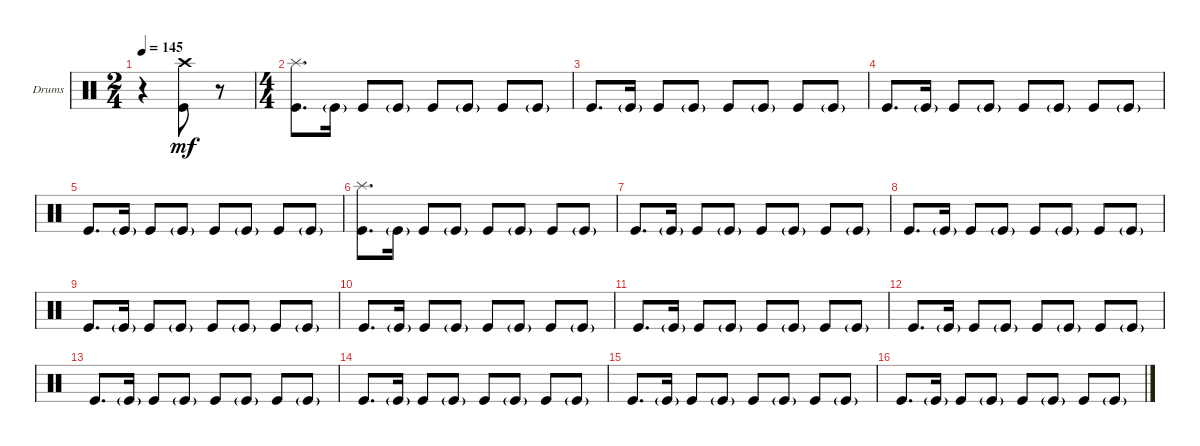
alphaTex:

\bracketExtendMode groupsimilarinstruments
\firstSystemTrackNameOrientation horizontal
\otherSystemsTrackNameOrientation horizontal
\track ("Drums" "Drums") {instrument percussion}
\staff {score}
\articulation defaults
\ts (2 4)
\tempo 145
\clef neutral
\scale
0.391473
\ks c
r.4{dy mf} ("Kick (hit)" "Crash high (hit)").8 r.8 |
\ts (4 4)
\scale
0.391473 ("Kick (hit)" "Splash (hit)").8{d} "Kick (hit)"{g}.16 "Kick (hit)".8 "Kick (hit)"{g}.8 "Kick (hit)".8 "Kick (hit)"{g}.8 "Kick (hit)".8 "Kick (hit)"{g}.8 |
\scale
0.217054 "Kick (hit)".8{d} "Kick (hit)"{g}.16 "Kick (hit)".8 "Kick (hit)"{g}.8 "Kick (hit)".8 "Kick (hit)"{g}.8 "Kick (hit)".8 "Kick (hit)"{g}.8 |
\scale
0.333333 "Kick (hit)".8{d} "Kick (hit)"{g}.16 "Kick (hit)".8 "Kick (hit)"{g}.8 "Kick (hit)".8 "Kick (hit)"{g}.8 "Kick (hit)".8 "Kick (hit)"{g}.8 |
\scale
0.333333 "Kick (hit)".8{d} "Kick (hit)"{g}.16 "Kick (hit)".8 "Kick (hit)"{g}.8 "Kick (hit)".8 "Kick (hit)"{g}.8 "Kick (hit)".8 "Kick (hit)"{g}.8 |
\scale
0.333333 ("Kick (hit)" "Splash (hit)").8{d} "Kick (hit)"{g}.16 "Kick (hit)".8 "Kick (hit)"{g}.8 "Kick (hit)".8 "Kick (hit)"{g}.8 "Kick (hit)".8 "Kick (hit)"{g}.8 |
\scale
0.333333 "Kick (hit)".8{d} "Kick (hit)"{g}.16 "Kick (hit)".8 "Kick (hit)"{g}.8 "Kick (hit)".8 "Kick (hit)"{g}.8 "Kick (hit)".8 "Kick (hit)"{g}.8 |
\scale
0.333333 "Kick (hit)".8{d} "Kick (hit)"{g}.16 "Kick (hit)".8 "Kick (hit)"{g}.8 "Kick (hit)".8 "Kick (hit)"{g}.8 "Kick (hit)".8 "Kick (hit)"{g}.8 |
\scale
0.333333 "Kick (hit)".8{d} "Kick (hit)"{g}.16 "Kick (hit)".8 "Kick (hit)"{g}.8 "Kick (hit)".8 "Kick (hit)"{g}.8 "Kick (hit)".8 "Kick (hit)"{g}.8 |
\scale
0.333333 "Kick (hit)".8{d} "Kick (hit)"{g}.16 "Kick (hit)".8 "Kick (hit)"{g}.8 "Kick (hit)".8 "Kick (hit)"{g}.8 "Kick (hit)".8 "Kick (hit)"{g}.8 |
\scale
0.333333 "Kick (hit)".8{d} "Kick (hit)"{g}.16 "Kick (hit)".8 "Kick (hit)"{g}.8 "Kick (hit)".8 "Kick (hit)"{g}.8 "Kick (hit)".8 "Kick (hit)"{g}.8 |
\scale
0.333333 "Kick (hit)".8{d} "Kick (hit)"{g}.16 "Kick (hit)".8 "Kick (hit)"{g}.8 "Kick (hit)".8 "Kick (hit)"{g}.8 "Kick (hit)".8 "Kick (hit)"{g}.8 |
\scale
0.333333 "Kick (hit)".8{d} "Kick (hit)"{g}.16 "Kick (hit)".8 "Kick (hit)"{g}.8 "Kick (hit)".8 "Kick (hit)"{g}.8 "Kick (hit)".8 "Kick (hit)"{g}.8 |
\scale
0.333333 "Kick (hit)".8{d} "Kick (hit)"{g}.16 "Kick (hit)".8 "Kick (hit)"{g}.8 "Kick (hit)".8 "Kick (hit)"{g}.8 "Kick (hit)".8 "Kick (hit)"{g}.8 |
\scale
0.333333 "Kick (hit)".8{d} "Kick (hit)"{g}.16 "Kick (hit)".8 "Kick (hit)"{g}.8 "Kick (hit)".8 "Kick (hit)"{g}.8 "Kick (hit)".8 "Kick (hit)"{g}.8 |
\scale
0.333333 "Kick (hit)".8{d} "Kick (hit)"{g}.16 "Kick (hit)".8 "Kick (hit)"{g}.8 "Kick (hit)".8 "Kick (hit)"{g}.8 "Kick (hit)".8 "Kick (hit)"{g}.8
